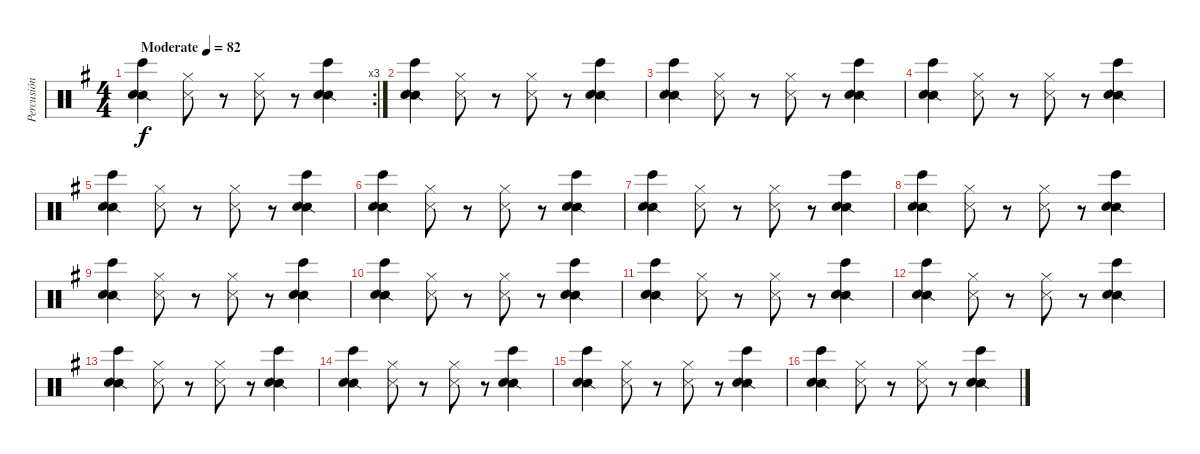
\track ("Percusión" "Percusión") {instrument percussion}
\staff {score}
\articulation defaults
\rc 3
\ts (4 4)
\tempo (82 "Moderate")
\clef neutral
\ks eminor
("Bongo High (hit)" "Snare (side stick) 2" "Hand Clap (hit)").4{dy f} ("Hi-Hat (closed)" "Snare (side stick) 3").8 r.8 ("Hi-Hat (closed)" "Snare (side stick) 3").8 r.8 ("Bongo High (hit)" "Snare (side stick) 2" "Hand Clap (hit)").4 |
("Bongo High (hit)" "Snare (side stick) 2" "Hand Clap (hit)").4 ("Hi-Hat (closed)" "Snare (side stick) 3").8 r.8 ("Hi-Hat (closed)" "Snare (side stick) 3").8 r.8 ("Bongo High (hit)" "Snare (side stick) 2" "Hand Clap (hit)").4 |
("Bongo High (hit)" "Snare (side stick) 2" "Hand Clap (hit)").4 ("Hi-Hat (closed)" "Snare (side stick) 3").8 r.8 ("Hi-Hat (closed)" "Snare (side stick) 3").8 r.8 ("Bongo High (hit)" "Snare (side stick) 2" "Hand Clap (hit)").4 |
("Bongo High (hit)" "Snare (side stick) 2" "Hand Clap (hit)").4 ("Hi-Hat (closed)" "Snare (side stick) 3").8 r.8 ("Hi-Hat (closed)" "Snare (side stick) 3").8 r.8 ("Bongo High (hit)" "Snare (side stick) 2" "Hand Clap (hit)").4 |
("Bongo High (hit)" "Snare (side stick) 2" "Hand Clap (hit)").4 ("Hi-Hat (closed)" "Snare (side stick) 3").8 r.8 ("Hi-Hat (closed)" "Snare (side stick) 3").8 r.8 ("Bongo High (hit)" "Snare (side stick) 2" "Hand Clap (hit)").4 |
("Bongo High (hit)" "Snare (side stick) 2" "Hand Clap (hit)").4 ("Hi-Hat (closed)" "Snare (side stick) 3").8 r.8 ("Hi-Hat (closed)" "Snare (side stick) 3").8 r.8 ("Bongo High (hit)" "Snare (side stick) 2" "Hand Clap (hit)").4 |
("Bongo High (hit)" "Snare (side stick) 2" "Hand Clap (hit)").4 ("Hi-Hat (closed)" "Snare (side stick) 3").8 r.8 ("Hi-Hat (closed)" "Snare (side stick) 3").8 r.8 ("Bongo High (hit)" "Snare (side stick) 2" "Hand Clap (hit)").4 |
("Bongo High (hit)" "Snare (side stick) 2" "Hand Clap (hit)").4 ("Hi-Hat (closed)" "Snare (side stick) 3").8 r.8 ("Hi-Hat (closed)" "Snare (side stick) 3").8 r.8 ("Bongo High (hit)" "Snare (side stick) 2" "Hand Clap (hit)").4 |
("Bongo High (hit)" "Snare (side stick) 2" "Hand Clap (hit)").4 ("Hi-Hat (closed)" "Snare (side stick) 3").8 r.8 ("Hi-Hat (closed)" "Snare (side stick) 3").8 r.8 ("Bongo High (hit)" "Snare (side stick) 2" "Hand Clap (hit)").4 |
("Bongo High (hit)" "Snare (side stick) 2" "Hand Clap (hit)").4 ("Hi-Hat (closed)" "Snare (side stick) 3").8 r.8 ("Hi-Hat (closed)" "Snare (side stick) 3").8 r.8 ("Bongo High (hit)" "Snare (side stick) 2" "Hand Clap (hit)").4 |
("Bongo High (hit)" "Snare (side stick) 2" "Hand Clap (hit)").4 ("Hi-Hat (closed)" "Snare (side stick) 3").8 r.8 ("Hi-Hat (closed)" "Snare (side stick) 3").8 r.8 ("Bongo High (hit)" "Snare (side stick) 2" "Hand Clap (hit)").4 |
("Bongo High (hit)" "Snare (side stick) 2" "Hand Clap (hit)").4 ("Hi-Hat (closed)" "Snare (side stick) 3").8 r.8 ("Hi-Hat (closed)" "Snare (side stick) 3").8 r.8 ("Bongo High (hit)" "Snare (side stick) 2" "Hand Clap (hit)").4 |
("Bongo High (hit)" "Snare (side stick) 2" "Hand Clap (hit)").4 ("Hi-Hat (closed)" "Snare (side stick) 3").8 r.8 ("Hi-Hat (closed)" "Snare (side stick) 3").8 r.8 ("Bongo High (hit)" "Snare (side stick) 2" "Hand Clap (hit)").4 |
("Bongo High (hit)" "Snare (side stick) 2" "Hand Clap (hit)").4 ("Hi-Hat (closed)" "Snare (side stick) 3").8 r.8 ("Hi-Hat (closed)" "Snare (side stick) 3").8 r.8 ("Bongo High (hit)" "Snare (side stick) 2" "Hand Clap (hit)").4 |
("Bongo High (hit)" "Snare (side stick) 2" "Hand Clap (hit)").4 ("Hi-Hat (closed)" "Snare (side stick) 3").8 r.8 ("Hi-Hat (closed)" "Snare (side stick) 3").8 r.8 ("Bongo High (hit)" "Snare (side stick) 2" "Hand Clap (hit)").4 |
("Bongo High (hit)" "Snare (side stick) 2" "Hand Clap (hit)").4 ("Hi-Hat (closed)" "Snare (side stick) 3").8 r.8 ("Hi-Hat (closed)" "Snare (side stick) 3").8 r.8 ("Bongo High (hit)" "Snare (side stick) 2" "Hand Clap (hit)").4
